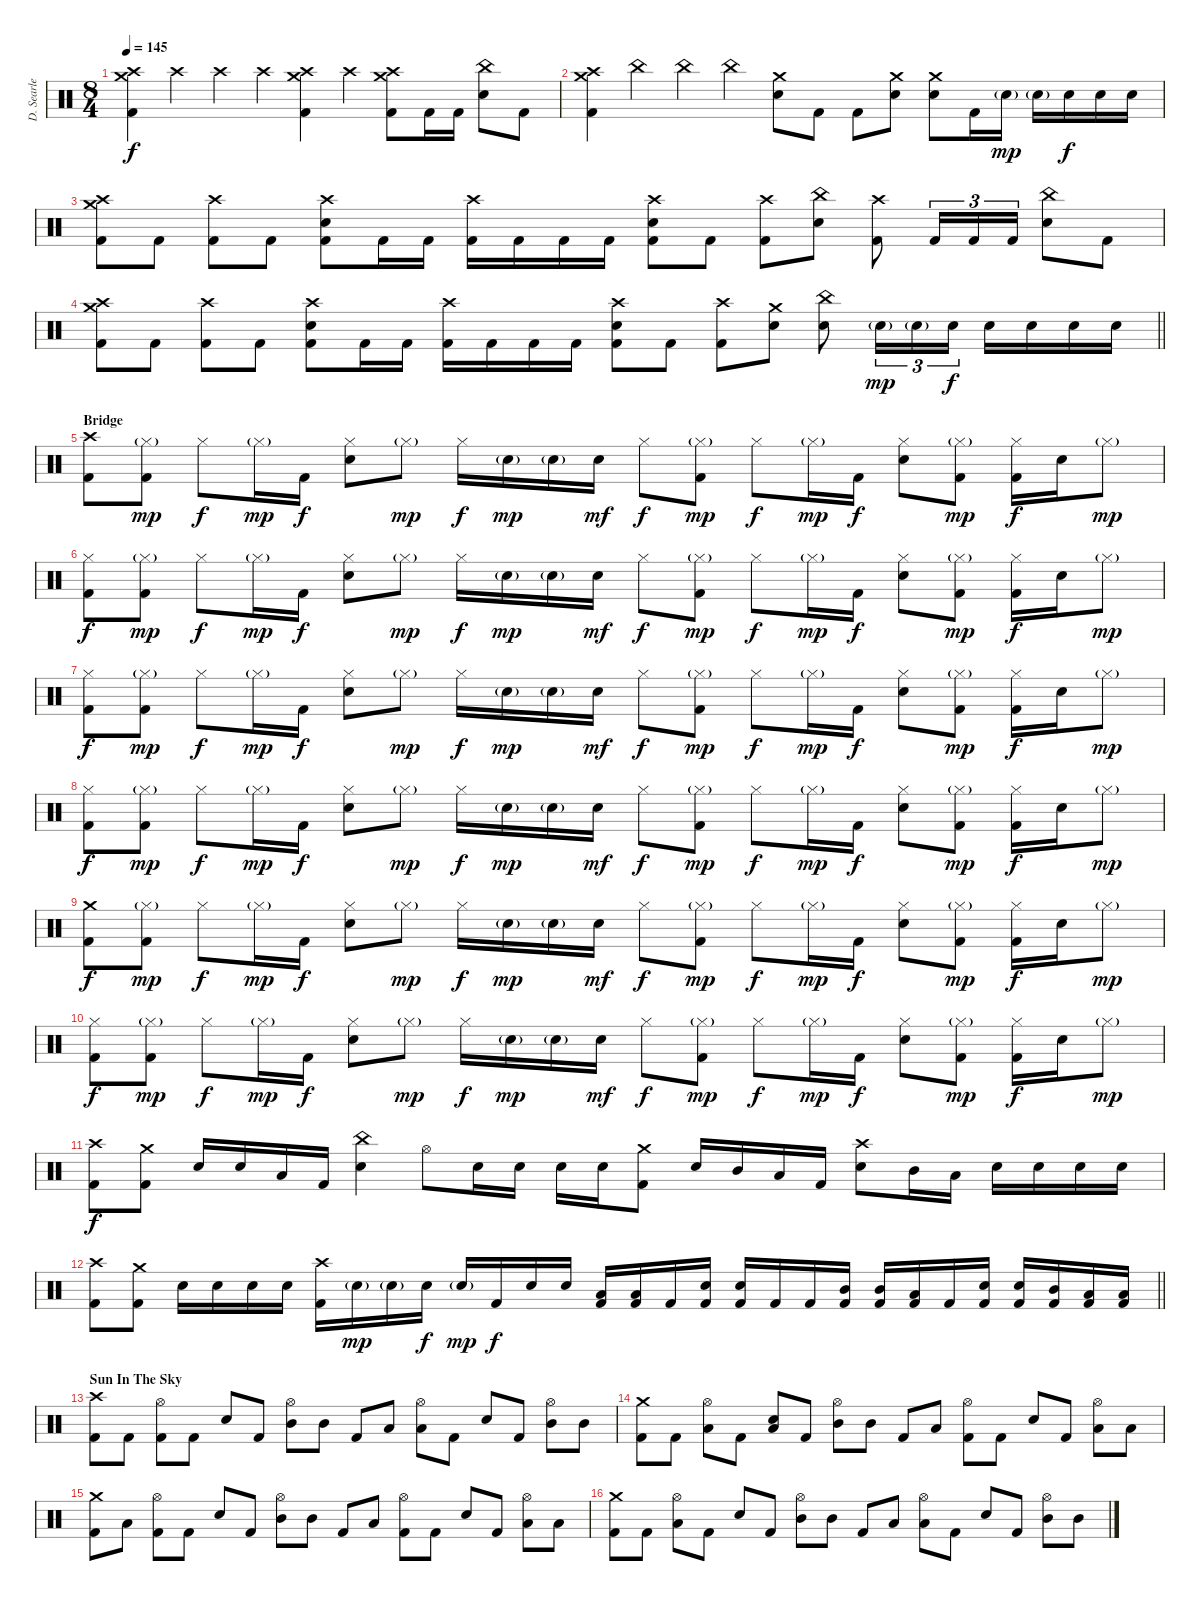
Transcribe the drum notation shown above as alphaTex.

\track ("D. Searle" "D. Searle") {instrument percussion}
\staff {score}
\articulation defaults
\ts (8 4)
\tempo 145
\clef neutral
\ks c
("Crash high (hit)" "Crash medium (hit)" "Kick (hit) 2").4{dy f} "Crash high (hit)".4 "Crash high (hit)".4 "Crash high (hit)".4 ("Crash high (hit)" "Crash medium (hit)" "Kick (hit) 2").4 "Crash high (hit)".4 ("Crash high (hit)" "Crash medium (hit)" "Kick (hit) 2").8 "Kick (hit) 2".16 "Kick (hit) 2".16 ("China (hit)" "Electric Snare (hit)").8 "Kick (hit) 2".8 |
("Crash high (hit)" "Crash medium (hit)" "Kick (hit) 2").4 "China (hit)".4 "China (hit)".4 "China (hit)".4 ("Crash medium (hit)" "Electric Snare (hit)").8 "Kick (hit) 2".8 "Kick (hit) 2".8 ("Crash medium (hit)" "Electric Snare (hit)").8 ("Crash medium (hit)" "Electric Snare (hit)").8 "Kick (hit) 2".16 "Electric Snare (hit)"{g}.16{dy mp} "Electric Snare (hit)"{g}.16 "Electric Snare (hit)".16{dy f} "Electric Snare (hit)".16 "Electric Snare (hit)".16 |
("Crash high (hit)" "Crash medium (hit)" "Kick (hit) 2").8 "Kick (hit) 2".8 ("Crash high (hit)" "Kick (hit) 2").8 "Kick (hit) 2".8 ("Crash high (hit)" "Electric Snare (hit)" "Kick (hit) 2").8 "Kick (hit) 2".16 "Kick (hit) 2".16 ("Crash high (hit)" "Kick (hit) 2").16 "Kick (hit) 2".16 "Kick (hit) 2".16 "Kick (hit) 2".16 ("Crash high (hit)" "Electric Snare (hit)" "Kick (hit) 2").8 "Kick (hit) 2".8 ("Crash high (hit)" "Kick (hit) 2").8 ("China (hit)" "Electric Snare (hit)").8 ("Crash high (hit)" "Kick (hit) 2").8 "Kick (hit) 2".16{tu (3 2)} "Kick (hit) 2".16{tu (3 2)} "Kick (hit) 2".16{tu (3 2)} ("China (hit)" "Electric Snare (hit)").8 "Kick (hit) 2".8 |
\barLineRight lightlight
("Crash high (hit)" "Crash medium (hit)" "Kick (hit) 2").8 "Kick (hit) 2".8 ("Crash high (hit)" "Kick (hit) 2").8 "Kick (hit) 2".8 ("Crash high (hit)" "Electric Snare (hit)" "Kick (hit) 2").8 "Kick (hit) 2".16 "Kick (hit) 2".16 ("Crash high (hit)" "Kick (hit) 2").16 "Kick (hit) 2".16 "Kick (hit) 2".16 "Kick (hit) 2".16 ("Crash high (hit)" "Electric Snare (hit)" "Kick (hit) 2").8 "Kick (hit) 2".8 ("Crash high (hit)" "Kick (hit) 2").8 ("Crash medium (hit)" "Electric Snare (hit)").8 ("China (hit)" "Electric Snare (hit)").8 "Electric Snare (hit)"{g}.16{tu (3 2) dy mp} "Electric Snare (hit)"{g}.16{tu (3 2)} "Electric Snare (hit)".16{tu (3 2) dy f} "Electric Snare (hit)".16 "Electric Snare (hit)".16 "Electric Snare (hit)".16 "Electric Snare (hit)".16 |
\section ("" "Bridge")
("Crash high (hit)" "Kick (hit) 2").8 ("Hi-Hat (closed)"{g} "Kick (hit) 2").8{dy mp} "Hi-Hat (closed)".8{dy f} "Hi-Hat (closed)"{g}.16{dy mp} "Kick (hit) 2".16{dy f} ("Hi-Hat (closed)" "Electric Snare (hit)").8 "Hi-Hat (closed)"{g}.8{dy mp} "Hi-Hat (closed)".16{dy f} "Electric Snare (hit)"{g}.16{dy mp} "Electric Snare (hit)"{g}.16 "Electric Snare (hit)".16{dy mf} "Hi-Hat (closed)".8{dy f} ("Hi-Hat (closed)"{g} "Kick (hit) 2").8{dy mp} "Hi-Hat (closed)".8{dy f} "Hi-Hat (closed)"{g}.16{dy mp} "Kick (hit) 2".16{dy f} ("Hi-Hat (closed)" "Electric Snare (hit)").8 ("Hi-Hat (closed)"{g} "Kick (hit) 2").8{dy mp} ("Hi-Hat (closed)" "Kick (hit) 2").16{dy f} "Electric Snare (hit)".16 "Hi-Hat (closed)"{g}.8{dy mp} |
("Hi-Hat (closed)" "Kick (hit) 2").8{dy f} ("Hi-Hat (closed)"{g} "Kick (hit) 2").8{dy mp} "Hi-Hat (closed)".8{dy f} "Hi-Hat (closed)"{g}.16{dy mp} "Kick (hit) 2".16{dy f} ("Hi-Hat (closed)" "Electric Snare (hit)").8 "Hi-Hat (closed)"{g}.8{dy mp} "Hi-Hat (closed)".16{dy f} "Electric Snare (hit)"{g}.16{dy mp} "Electric Snare (hit)"{g}.16 "Electric Snare (hit)".16{dy mf} "Hi-Hat (closed)".8{dy f} ("Hi-Hat (closed)"{g} "Kick (hit) 2").8{dy mp} "Hi-Hat (closed)".8{dy f} "Hi-Hat (closed)"{g}.16{dy mp} "Kick (hit) 2".16{dy f} ("Hi-Hat (closed)" "Electric Snare (hit)").8 ("Hi-Hat (closed)"{g} "Kick (hit) 2").8{dy mp} ("Hi-Hat (closed)" "Kick (hit) 2").16{dy f} "Electric Snare (hit)".16 "Hi-Hat (closed)"{g}.8{dy mp} |
("Hi-Hat (closed)" "Kick (hit) 2").8{dy f} ("Hi-Hat (closed)"{g} "Kick (hit) 2").8{dy mp} "Hi-Hat (closed)".8{dy f} "Hi-Hat (closed)"{g}.16{dy mp} "Kick (hit) 2".16{dy f} ("Hi-Hat (closed)" "Electric Snare (hit)").8 "Hi-Hat (closed)"{g}.8{dy mp} "Hi-Hat (closed)".16{dy f} "Electric Snare (hit)"{g}.16{dy mp} "Electric Snare (hit)"{g}.16 "Electric Snare (hit)".16{dy mf} "Hi-Hat (closed)".8{dy f} ("Hi-Hat (closed)"{g} "Kick (hit) 2").8{dy mp} "Hi-Hat (closed)".8{dy f} "Hi-Hat (closed)"{g}.16{dy mp} "Kick (hit) 2".16{dy f} ("Hi-Hat (closed)" "Electric Snare (hit)").8 ("Hi-Hat (closed)"{g} "Kick (hit) 2").8{dy mp} ("Hi-Hat (closed)" "Kick (hit) 2").16{dy f} "Electric Snare (hit)".16 "Hi-Hat (closed)"{g}.8{dy mp} |
("Hi-Hat (closed)" "Kick (hit) 2").8{dy f} ("Hi-Hat (closed)"{g} "Kick (hit) 2").8{dy mp} "Hi-Hat (closed)".8{dy f} "Hi-Hat (closed)"{g}.16{dy mp} "Kick (hit) 2".16{dy f} ("Hi-Hat (closed)" "Electric Snare (hit)").8 "Hi-Hat (closed)"{g}.8{dy mp} "Hi-Hat (closed)".16{dy f} "Electric Snare (hit)"{g}.16{dy mp} "Electric Snare (hit)"{g}.16 "Electric Snare (hit)".16{dy mf} "Hi-Hat (closed)".8{dy f} ("Hi-Hat (closed)"{g} "Kick (hit) 2").8{dy mp} "Hi-Hat (closed)".8{dy f} "Hi-Hat (closed)"{g}.16{dy mp} "Kick (hit) 2".16{dy f} ("Hi-Hat (closed)" "Electric Snare (hit)").8 ("Hi-Hat (closed)"{g} "Kick (hit) 2").8{dy mp} ("Hi-Hat (closed)" "Kick (hit) 2").16{dy f} "Electric Snare (hit)".16 "Hi-Hat (closed)"{g}.8{dy mp} |
("Crash medium (hit)" "Kick (hit) 2").8{dy f} ("Hi-Hat (closed)"{g} "Kick (hit) 2").8{dy mp} "Hi-Hat (closed)".8{dy f} "Hi-Hat (closed)"{g}.16{dy mp} "Kick (hit) 2".16{dy f} ("Hi-Hat (closed)" "Electric Snare (hit)").8 "Hi-Hat (closed)"{g}.8{dy mp} "Hi-Hat (closed)".16{dy f} "Electric Snare (hit)"{g}.16{dy mp} "Electric Snare (hit)"{g}.16 "Electric Snare (hit)".16{dy mf} "Hi-Hat (closed)".8{dy f} ("Hi-Hat (closed)"{g} "Kick (hit) 2").8{dy mp} "Hi-Hat (closed)".8{dy f} "Hi-Hat (closed)"{g}.16{dy mp} "Kick (hit) 2".16{dy f} ("Hi-Hat (closed)" "Electric Snare (hit)").8 ("Hi-Hat (closed)"{g} "Kick (hit) 2").8{dy mp} ("Hi-Hat (closed)" "Kick (hit) 2").16{dy f} "Electric Snare (hit)".16 "Hi-Hat (closed)"{g}.8{dy mp} |
("Hi-Hat (closed)" "Kick (hit) 2").8{dy f} ("Hi-Hat (closed)"{g} "Kick (hit) 2").8{dy mp} "Hi-Hat (closed)".8{dy f} "Hi-Hat (closed)"{g}.16{dy mp} "Kick (hit) 2".16{dy f} ("Hi-Hat (closed)" "Electric Snare (hit)").8 "Hi-Hat (closed)"{g}.8{dy mp} "Hi-Hat (closed)".16{dy f} "Electric Snare (hit)"{g}.16{dy mp} "Electric Snare (hit)"{g}.16 "Electric Snare (hit)".16{dy mf} "Hi-Hat (closed)".8{dy f} ("Hi-Hat (closed)"{g} "Kick (hit) 2").8{dy mp} "Hi-Hat (closed)".8{dy f} "Hi-Hat (closed)"{g}.16{dy mp} "Kick (hit) 2".16{dy f} ("Hi-Hat (closed)" "Electric Snare (hit)").8 ("Hi-Hat (closed)"{g} "Kick (hit) 2").8{dy mp} ("Hi-Hat (closed)" "Kick (hit) 2").16{dy f} "Electric Snare (hit)".16 "Hi-Hat (closed)"{g}.8{dy mp} |
("Crash high (hit)" "Kick (hit) 2").8{dy f} ("Crash medium (hit)" "Kick (hit) 2").8 "Electric Snare (hit)".16 "Electric Snare (hit)".16 "Low Tom (hit)".16 "Kick (hit) 2".16 ("China (hit)" "Electric Snare (hit)").4 "Hi-Hat (open)".8 "Electric Snare (hit)".16 "Electric Snare (hit)".16 "Electric Snare (hit)".16 "Electric Snare (hit)".16 ("Crash medium (hit)" "Kick (hit) 2").8 "Electric Snare (hit)".16 "Mid Tom (hit)".16 "Low Tom (hit)".16 "Kick (hit) 2".16 ("Crash high (hit)" "Electric Snare (hit)").8 "Mid Tom (hit)".16 "Low Tom (hit)".16 "Electric Snare (hit)".16 "Electric Snare (hit)".16 "Electric Snare (hit)".16 "Electric Snare (hit)".16 |
\barLineRight lightlight
("Crash high (hit)" "Kick (hit) 2").8 ("Crash medium (hit)" "Kick (hit) 2").8 "Electric Snare (hit)".16 "Electric Snare (hit)".16 "Electric Snare (hit)".16 "Electric Snare (hit)".16 ("Crash high (hit)" "Kick (hit) 2").16 "Electric Snare (hit)"{g}.16{dy mp} "Electric Snare (hit)"{g}.16 "Electric Snare (hit)".16{dy f} "Electric Snare (hit)"{g}.16{dy mp} "Kick (hit) 2".16{dy f} "Electric Snare (hit)".16 "Electric Snare (hit)".16 ("Low Tom (hit)" "Kick (hit) 2").16 ("Low Tom (hit)" "Kick (hit) 2").16 "Kick (hit) 2".16 ("Electric Snare (hit)" "Kick (hit) 2").16 ("Electric Snare (hit)" "Kick (hit) 2").16 "Kick (hit) 2".16 "Kick (hit) 2".16 ("Mid Tom (hit)" "Kick (hit) 2").16 ("Mid Tom (hit)" "Kick (hit) 2").16 ("Low Tom (hit)" "Kick (hit) 2").16 "Kick (hit) 2".16 ("Electric Snare (hit)" "Kick (hit) 2").16 ("Electric Snare (hit)" "Kick (hit) 2").16 ("Mid Tom (hit)" "Kick (hit) 2").16 ("Low Tom (hit)" "Kick (hit) 2").16 ("Low Tom (hit)" "Kick (hit) 2").16 |
\section ("" "Sun In The Sky")
("Crash high (hit)" "Kick (hit) 2").8 "Kick (hit) 2".8 ("Hi-Hat (open)" "Kick (hit) 2").8 "Kick (hit) 2".8 "Electric Snare (hit)".8 "Kick (hit) 2".8 ("Hi-Hat (open)" "Mid Tom (hit)").8 "Mid Tom (hit)".8 "Kick (hit) 2".8 "Low Tom (hit)".8 ("Hi-Hat (open)" "Low Tom (hit)").8 "Kick (hit) 2".8 "Electric Snare (hit)".8 "Kick (hit) 2".8 ("Hi-Hat (open)" "Mid Tom (hit)").8 "Mid Tom (hit)".8 |
("Crash medium (hit)" "Kick (hit) 2").8 "Kick (hit) 2".8 ("Hi-Hat (open)" "Low Tom (hit)").8 "Kick (hit) 2".8 ("Low Tom (hit)" "Electric Snare (hit)").8 "Kick (hit) 2".8 ("Hi-Hat (open)" "Mid Tom (hit)").8 "Mid Tom (hit)".8 "Kick (hit) 2".8 "Low Tom (hit)".8 ("Hi-Hat (open)" "Kick (hit) 2").8 "Kick (hit) 2".8 "Electric Snare (hit)".8 "Kick (hit) 2".8 ("Hi-Hat (open)" "Low Tom (hit)").8 "Low Tom (hit)".8 |
("Crash medium (hit)" "Kick (hit) 2").8 "Low Tom (hit)".8 ("Hi-Hat (open)" "Kick (hit) 2").8 "Kick (hit) 2".8 "Electric Snare (hit)".8 "Kick (hit) 2".8 ("Hi-Hat (open)" "Mid Tom (hit)").8 "Mid Tom (hit)".8 "Kick (hit) 2".8 "Low Tom (hit)".8 ("Hi-Hat (open)" "Kick (hit) 2").8 "Kick (hit) 2".8 "Electric Snare (hit)".8 "Kick (hit) 2".8 ("Hi-Hat (open)" "Low Tom (hit)").8 "Low Tom (hit)".8 |
("Crash medium (hit)" "Kick (hit) 2").8 "Kick (hit) 2".8 ("Hi-Hat (open)" "Low Tom (hit)").8 "Kick (hit) 2".8 "Electric Snare (hit)".8 "Kick (hit) 2".8 ("Hi-Hat (open)" "Mid Tom (hit)").8 "Mid Tom (hit)".8 "Kick (hit) 2".8 "Low Tom (hit)".8 ("Hi-Hat (open)" "Low Tom (hit)").8 "Kick (hit) 2".8 "Electric Snare (hit)".8 "Kick (hit) 2".8 ("Hi-Hat (open)" "Mid Tom (hit)").8 "Mid Tom (hit)".8
